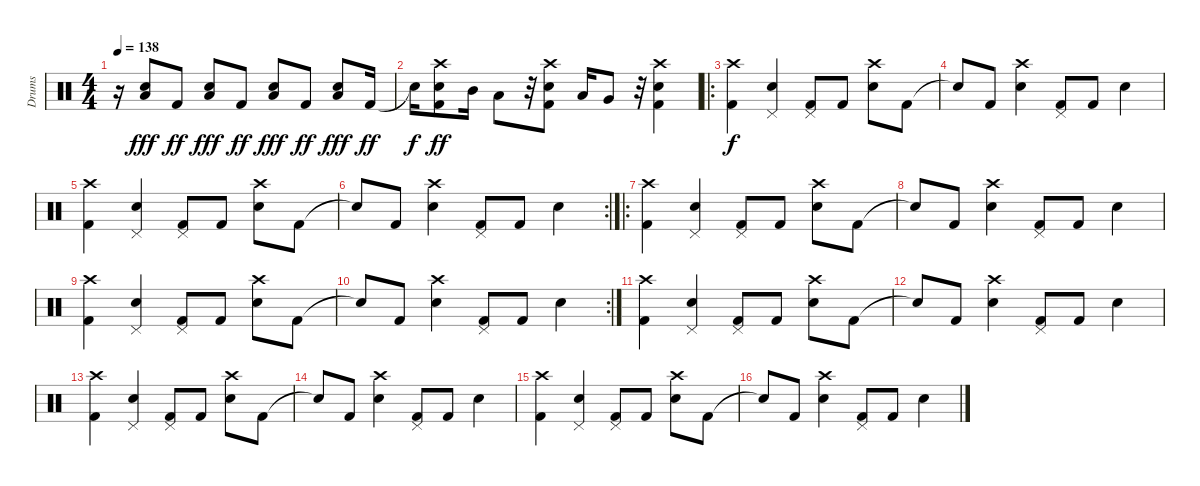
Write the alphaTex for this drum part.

\track ("Drums" "Drums") {instrument percussion}
\staff {score}
\articulation defaults
\ts (4 4)
\tempo 138
\clef neutral
\ks c
r.16{dy fff} ("Low Floor Tom (hit)" "Snare (hit) 2").8 "Kick (hit) 2".8{dy ff} ("Low Floor Tom (hit)" "Snare (hit) 2").8{dy fff} "Kick (hit) 2".8{dy ff} ("Low Floor Tom (hit)" "Snare (hit) 2").8{dy fff} "Kick (hit) 2".8{dy ff} ("Low Floor Tom (hit)" "Snare (hit) 2").8{dy fff} "Kick (hit) 2".16{dy ff} |
"Snare (hit)"{t}.16{dy f} ("Crash high (hit)" "Snare (hit) 2" "Kick (hit) 2").8{dy ff} "Mid Tom (hit)".16 "Low Tom (hit)".8 r.32 ("Crash high (hit)" "Snare (hit) 2" "Kick (hit) 2").8 "Low Tom (hit)".16 "Very Low Tom (hit)".8 r.32 ("Crash high (hit)" "Snare (hit) 2" "Kick (hit) 2").4 |
\ro
("Crash high (hit)" "Kick (hit) 2").4{dy f} ("Pedal Hi-Hat (hit)" "Snare (hit) 2").4 ("Pedal Hi-Hat (hit)" "Kick (hit) 2").8 "Kick (hit) 2".8 ("Crash high (hit)" "Snare (hit) 2").8 "Kick (hit) 2".8 |
"Snare (hit)"{t}.8 "Kick (hit) 2".8 ("Crash high (hit)" "Snare (hit) 2").4 ("Pedal Hi-Hat (hit)" "Kick (hit) 2").8 "Kick (hit) 2".8 "Snare (hit) 2".4 |
("Crash high (hit)" "Kick (hit) 2").4 ("Pedal Hi-Hat (hit)" "Snare (hit) 2").4 ("Pedal Hi-Hat (hit)" "Kick (hit) 2").8 "Kick (hit) 2".8 ("Crash high (hit)" "Snare (hit) 2").8 "Kick (hit) 2".8 |
\rc 2 "Snare (hit)"{t}.8 "Kick (hit) 2".8
("Crash high (hit)" "Snare (hit) 2").4 ("Pedal Hi-Hat (hit)" "Kick (hit) 2").8 "Kick (hit) 2".8 "Snare (hit) 2".4 |
\ro
("Crash high (hit)" "Kick (hit) 2").4 ("Pedal Hi-Hat (hit)" "Snare (hit) 2").4 ("Pedal Hi-Hat (hit)" "Kick (hit) 2").8 "Kick (hit) 2".8 ("Crash high (hit)" "Snare (hit) 2").8 "Kick (hit) 2".8 |
"Snare (hit)"{t}.8 "Kick (hit) 2".8 ("Crash high (hit)" "Snare (hit) 2").4 ("Pedal Hi-Hat (hit)" "Kick (hit) 2").8 "Kick (hit) 2".8 "Snare (hit) 2".4 |
("Crash high (hit)" "Kick (hit) 2").4 ("Pedal Hi-Hat (hit)" "Snare (hit) 2").4 ("Pedal Hi-Hat (hit)" "Kick (hit) 2").8 "Kick (hit) 2".8 ("Crash high (hit)" "Snare (hit) 2").8 "Kick (hit) 2".8 |
\rc 2 "Snare (hit)"{t}.8 "Kick (hit) 2".8
("Crash high (hit)" "Snare (hit) 2").4 ("Pedal Hi-Hat (hit)" "Kick (hit) 2").8 "Kick (hit) 2".8 "Snare (hit) 2".4 |
("Crash high (hit)" "Kick (hit) 2").4 ("Pedal Hi-Hat (hit)" "Snare (hit) 2").4 ("Pedal Hi-Hat (hit)" "Kick (hit) 2").8 "Kick (hit) 2".8 ("Crash high (hit)" "Snare (hit) 2").8 "Kick (hit) 2".8 |
"Snare (hit)"{t}.8 "Kick (hit) 2".8 ("Crash high (hit)" "Snare (hit) 2").4 ("Pedal Hi-Hat (hit)" "Kick (hit) 2").8 "Kick (hit) 2".8 "Snare (hit) 2".4 |
("Crash high (hit)" "Kick (hit) 2").4 ("Pedal Hi-Hat (hit)" "Snare (hit) 2").4 ("Pedal Hi-Hat (hit)" "Kick (hit) 2").8 "Kick (hit) 2".8 ("Crash high (hit)" "Snare (hit) 2").8 "Kick (hit) 2".8 |
"Snare (hit)"{t}.8 "Kick (hit) 2".8 ("Crash high (hit)" "Snare (hit) 2").4 ("Pedal Hi-Hat (hit)" "Kick (hit) 2").8 "Kick (hit) 2".8 "Snare (hit) 2".4 |
("Crash high (hit)" "Kick (hit) 2").4 ("Pedal Hi-Hat (hit)" "Snare (hit) 2").4 ("Pedal Hi-Hat (hit)" "Kick (hit) 2").8 "Kick (hit) 2".8 ("Crash high (hit)" "Snare (hit) 2").8 "Kick (hit) 2".8 |
"Snare (hit)"{t}.8 "Kick (hit) 2".8 ("Crash high (hit)" "Snare (hit) 2").4 ("Pedal Hi-Hat (hit)" "Kick (hit) 2").8 "Kick (hit) 2".8 "Snare (hit) 2".4
